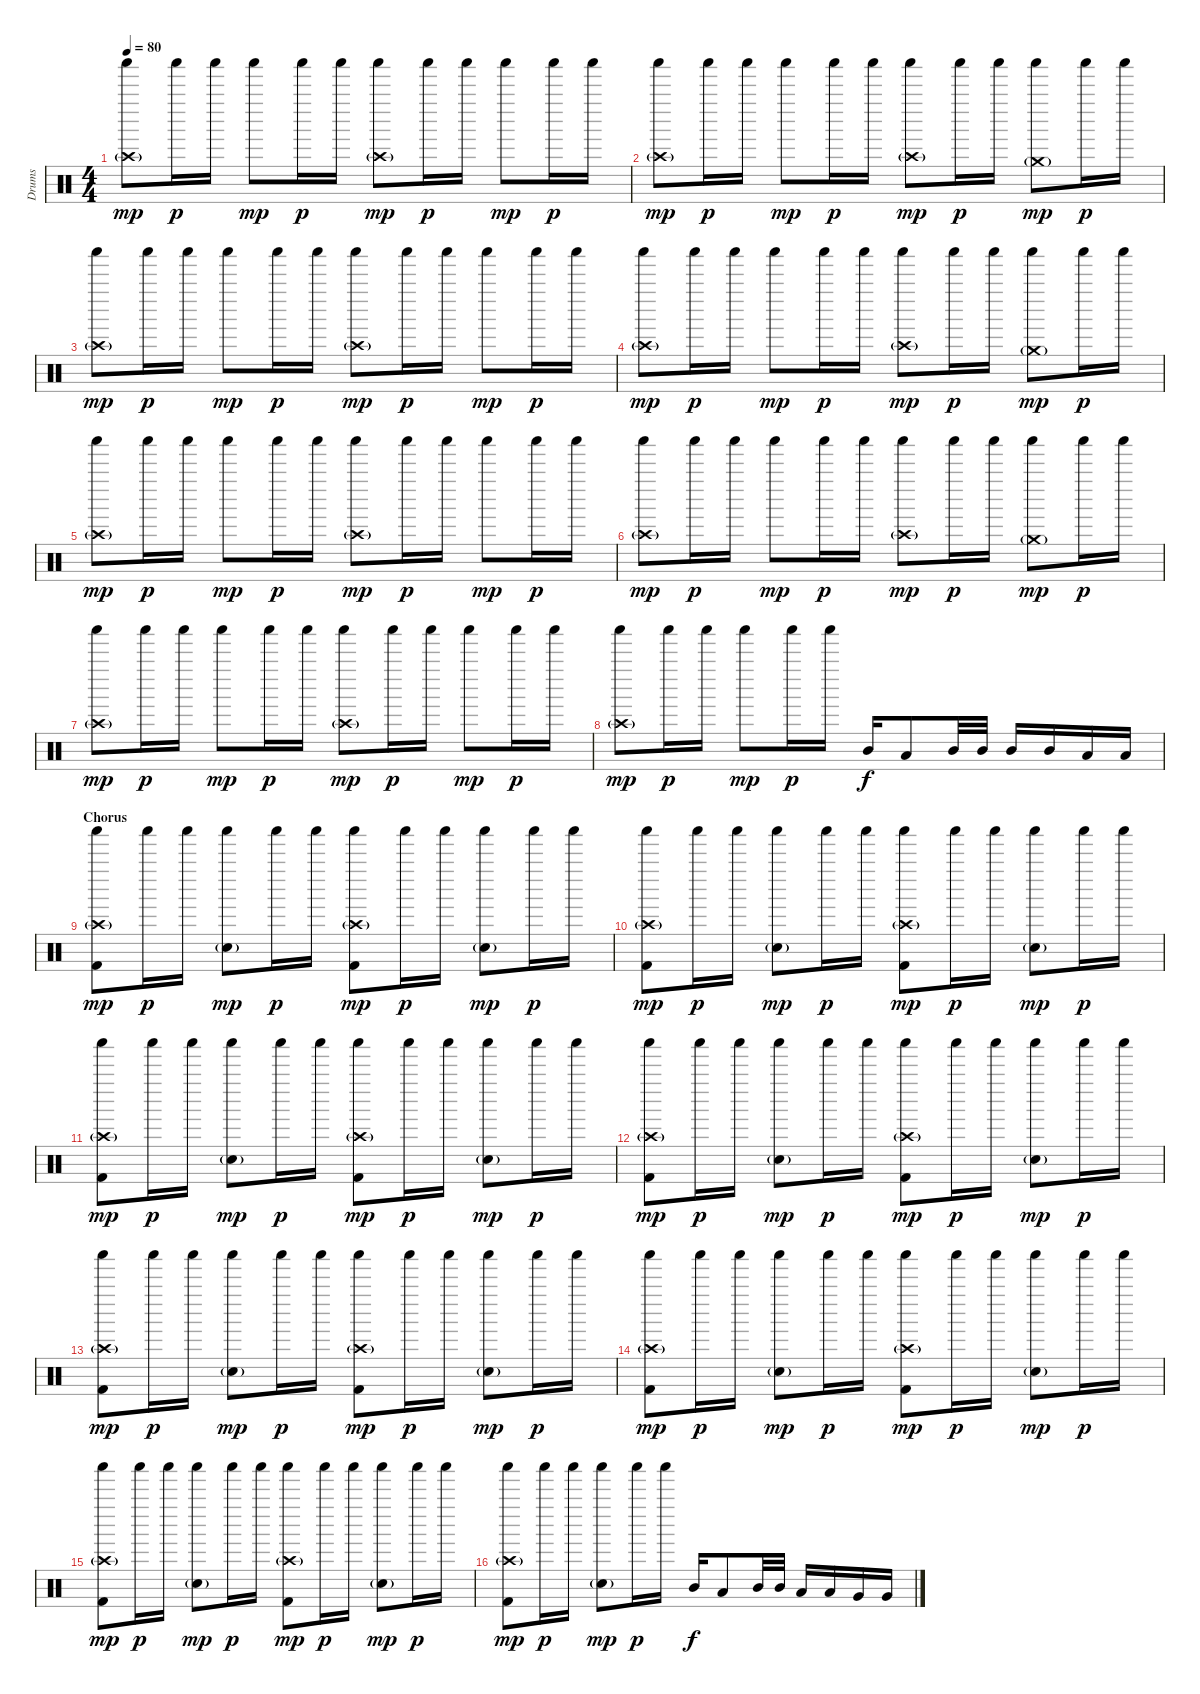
\track ("Drums" "Drums") {instrument percussion}
\staff {score}
\articulation defaults
\ts (4 4)
\tempo 80
\clef neutral
\ks c
("Crash high (hit)"{g} "Shaker (hit)").8{dy mp} "Shaker (hit)".16{dy p} "Shaker (hit)".16 "Shaker (hit)".8{dy mp} "Shaker (hit)".16{dy p} "Shaker (hit)".16 ("Crash high (hit)"{g} "Shaker (hit)").8{dy mp} "Shaker (hit)".16{dy p} "Shaker (hit)".16 "Shaker (hit)".8{dy mp} "Shaker (hit)".16{dy p} "Shaker (hit)".16 |
("Crash high (hit)"{g} "Shaker (hit)").8{dy mp} "Shaker (hit)".16{dy p} "Shaker (hit)".16 "Shaker (hit)".8{dy mp} "Shaker (hit)".16{dy p} "Shaker (hit)".16 ("Crash high (hit)"{g} "Shaker (hit)").8{dy mp} "Shaker (hit)".16{dy p} "Shaker (hit)".16 ("Crash medium (hit)"{g} "Shaker (hit)").8{dy mp} "Shaker (hit)".16{dy p} "Shaker (hit)".16 |
("Crash high (hit)"{g} "Shaker (hit)").8{dy mp} "Shaker (hit)".16{dy p} "Shaker (hit)".16 "Shaker (hit)".8{dy mp} "Shaker (hit)".16{dy p} "Shaker (hit)".16 ("Crash high (hit)"{g} "Shaker (hit)").8{dy mp} "Shaker (hit)".16{dy p} "Shaker (hit)".16 "Shaker (hit)".8{dy mp} "Shaker (hit)".16{dy p} "Shaker (hit)".16 |
("Crash high (hit)"{g} "Shaker (hit)").8{dy mp} "Shaker (hit)".16{dy p} "Shaker (hit)".16 "Shaker (hit)".8{dy mp} "Shaker (hit)".16{dy p} "Shaker (hit)".16 ("Crash high (hit)"{g} "Shaker (hit)").8{dy mp} "Shaker (hit)".16{dy p} "Shaker (hit)".16 ("Crash medium (hit)"{g} "Shaker (hit)").8{dy mp} "Shaker (hit)".16{dy p} "Shaker (hit)".16 |
("Crash high (hit)"{g} "Shaker (hit)").8{dy mp} "Shaker (hit)".16{dy p} "Shaker (hit)".16 "Shaker (hit)".8{dy mp} "Shaker (hit)".16{dy p} "Shaker (hit)".16 ("Crash high (hit)"{g} "Shaker (hit)").8{dy mp} "Shaker (hit)".16{dy p} "Shaker (hit)".16 "Shaker (hit)".8{dy mp} "Shaker (hit)".16{dy p} "Shaker (hit)".16 |
("Crash high (hit)"{g} "Shaker (hit)").8{dy mp} "Shaker (hit)".16{dy p} "Shaker (hit)".16 "Shaker (hit)".8{dy mp} "Shaker (hit)".16{dy p} "Shaker (hit)".16 ("Crash high (hit)"{g} "Shaker (hit)").8{dy mp} "Shaker (hit)".16{dy p} "Shaker (hit)".16 ("Crash medium (hit)"{g} "Shaker (hit)").8{dy mp} "Shaker (hit)".16{dy p} "Shaker (hit)".16 |
("Crash high (hit)"{g} "Shaker (hit)").8{dy mp} "Shaker (hit)".16{dy p} "Shaker (hit)".16 "Shaker (hit)".8{dy mp} "Shaker (hit)".16{dy p} "Shaker (hit)".16 ("Crash high (hit)"{g} "Shaker (hit)").8{dy mp} "Shaker (hit)".16{dy p} "Shaker (hit)".16 "Shaker (hit)".8{dy mp} "Shaker (hit)".16{dy p} "Shaker (hit)".16 |
("Crash high (hit)"{g} "Shaker (hit)").8{dy mp} "Shaker (hit)".16{dy p} "Shaker (hit)".16 "Shaker (hit)".8{dy mp} "Shaker (hit)".16{dy p} "Shaker (hit)".16 "Mid Tom (hit)".16{dy f} "Low Tom (hit)".8 "Mid Tom (hit)".32 "Mid Tom (hit)".32 "Mid Tom (hit)".16 "Mid Tom (hit)".16 "Low Tom (hit)".16 "Low Tom (hit)".16 |
\section ("" "Chorus")
("Crash high (hit)"{g} "Shaker (hit)" "Kick (hit) 2").8{dy mp} "Shaker (hit)".16{dy p} "Shaker (hit)".16 ("Shaker (hit)" "Electric Snare (hit)"{g}).8{dy mp} "Shaker (hit)".16{dy p} "Shaker (hit)".16 ("Crash high (hit)"{g} "Shaker (hit)" "Kick (hit) 2").8{dy mp} "Shaker (hit)".16{dy p} "Shaker (hit)".16 ("Shaker (hit)" "Electric Snare (hit)"{g}).8{dy mp} "Shaker (hit)".16{dy p} "Shaker (hit)".16 |
("Crash high (hit)"{g} "Shaker (hit)" "Kick (hit) 2").8{dy mp} "Shaker (hit)".16{dy p} "Shaker (hit)".16 ("Shaker (hit)" "Electric Snare (hit)"{g}).8{dy mp} "Shaker (hit)".16{dy p} "Shaker (hit)".16 ("Crash high (hit)"{g} "Shaker (hit)" "Kick (hit) 2").8{dy mp} "Shaker (hit)".16{dy p} "Shaker (hit)".16 ("Shaker (hit)" "Electric Snare (hit)"{g}).8{dy mp} "Shaker (hit)".16{dy p} "Shaker (hit)".16 |
("Crash high (hit)"{g} "Shaker (hit)" "Kick (hit) 2").8{dy mp} "Shaker (hit)".16{dy p} "Shaker (hit)".16 ("Shaker (hit)" "Electric Snare (hit)"{g}).8{dy mp} "Shaker (hit)".16{dy p} "Shaker (hit)".16 ("Crash high (hit)"{g} "Shaker (hit)" "Kick (hit) 2").8{dy mp} "Shaker (hit)".16{dy p} "Shaker (hit)".16 ("Shaker (hit)" "Electric Snare (hit)"{g}).8{dy mp} "Shaker (hit)".16{dy p} "Shaker (hit)".16 |
("Crash high (hit)"{g} "Shaker (hit)" "Kick (hit) 2").8{dy mp} "Shaker (hit)".16{dy p} "Shaker (hit)".16 ("Shaker (hit)" "Electric Snare (hit)"{g}).8{dy mp} "Shaker (hit)".16{dy p} "Shaker (hit)".16 ("Crash high (hit)"{g} "Shaker (hit)" "Kick (hit) 2").8{dy mp} "Shaker (hit)".16{dy p} "Shaker (hit)".16 ("Shaker (hit)" "Electric Snare (hit)"{g}).8{dy mp} "Shaker (hit)".16{dy p} "Shaker (hit)".16 |
("Crash high (hit)"{g} "Shaker (hit)" "Kick (hit) 2").8{dy mp} "Shaker (hit)".16{dy p} "Shaker (hit)".16 ("Shaker (hit)" "Electric Snare (hit)"{g}).8{dy mp} "Shaker (hit)".16{dy p} "Shaker (hit)".16 ("Crash high (hit)"{g} "Shaker (hit)" "Kick (hit) 2").8{dy mp} "Shaker (hit)".16{dy p} "Shaker (hit)".16 ("Shaker (hit)" "Electric Snare (hit)"{g}).8{dy mp} "Shaker (hit)".16{dy p} "Shaker (hit)".16 |
("Crash high (hit)"{g} "Shaker (hit)" "Kick (hit) 2").8{dy mp} "Shaker (hit)".16{dy p} "Shaker (hit)".16 ("Shaker (hit)" "Electric Snare (hit)"{g}).8{dy mp} "Shaker (hit)".16{dy p} "Shaker (hit)".16 ("Crash high (hit)"{g} "Shaker (hit)" "Kick (hit) 2").8{dy mp} "Shaker (hit)".16{dy p} "Shaker (hit)".16 ("Shaker (hit)" "Electric Snare (hit)"{g}).8{dy mp} "Shaker (hit)".16{dy p} "Shaker (hit)".16 |
("Crash high (hit)"{g} "Shaker (hit)" "Kick (hit) 2").8{dy mp} "Shaker (hit)".16{dy p} "Shaker (hit)".16 ("Shaker (hit)" "Electric Snare (hit)"{g}).8{dy mp} "Shaker (hit)".16{dy p} "Shaker (hit)".16 ("Crash high (hit)"{g} "Shaker (hit)" "Kick (hit) 2").8{dy mp} "Shaker (hit)".16{dy p} "Shaker (hit)".16 ("Shaker (hit)" "Electric Snare (hit)"{g}).8{dy mp} "Shaker (hit)".16{dy p} "Shaker (hit)".16 |
("Crash high (hit)"{g} "Shaker (hit)" "Kick (hit) 2").8{dy mp} "Shaker (hit)".16{dy p} "Shaker (hit)".16 ("Shaker (hit)" "Electric Snare (hit)"{g}).8{dy mp} "Shaker (hit)".16{dy p} "Shaker (hit)".16 "Mid Tom (hit)".16{dy f} "Low Tom (hit)".8 "Mid Tom (hit)".32 "Mid Tom (hit)".32 "Low Tom (hit)".16 "Low Tom (hit)".16 "Very Low Tom (hit)".16 "Very Low Tom (hit)".16
